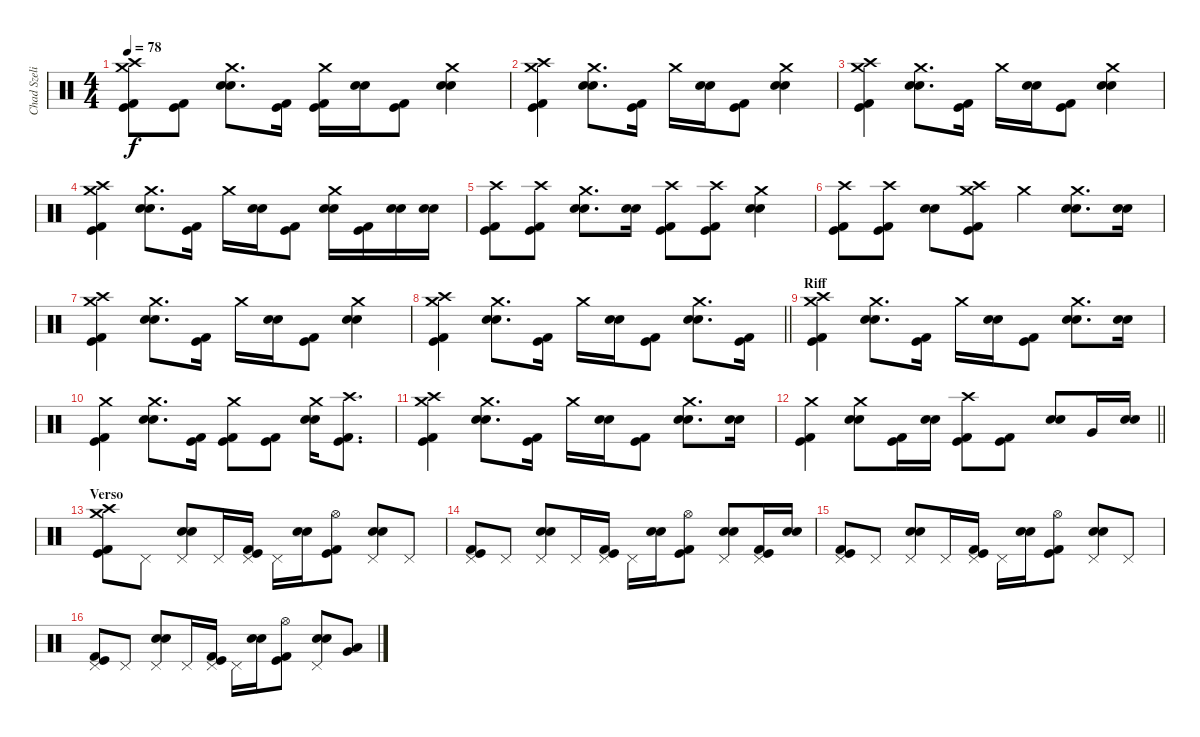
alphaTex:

\track ("Chad Szeliga" "Chad Szeli") {instrument percussion}
\staff {score}
\articulation defaults
\ts (4 4)
\tempo 78
\clef neutral
\ks c
("Crash high (hit)" "Kick (hit) 2" "Kick (hit)" "Crash medium (hit)").8{dy f} ("Kick (hit) 2" "Kick (hit)").8 ("Crash medium (hit)" "Snare (hit) 2" "Snare (hit) 2").8{d} ("Kick (hit) 2" "Kick (hit)").16 ("Crash medium (hit)" "Kick (hit) 2" "Kick (hit)").16 ("Snare (hit) 2" "Snare (hit) 2").16 ("Kick (hit) 2" "Kick (hit)").8 ("Crash medium (hit)" "Snare (hit) 2" "Snare (hit) 2").4 |
("Crash high (hit)" "Kick (hit) 2" "Kick (hit)" "Crash medium (hit)").4 ("Crash medium (hit)" "Snare (hit) 2" "Snare (hit) 2").8{d} ("Kick (hit) 2" "Kick (hit)").16 "Crash medium (hit)".16 ("Snare (hit) 2" "Snare (hit) 2").16 ("Kick (hit) 2" "Kick (hit)").8 ("Crash medium (hit)" "Snare (hit) 2" "Snare (hit) 2").4 |
("Crash high (hit)" "Kick (hit) 2" "Kick (hit)" "Crash medium (hit)").4 ("Crash medium (hit)" "Snare (hit) 2" "Snare (hit) 2").8{d} ("Kick (hit) 2" "Kick (hit)").16 "Crash medium (hit)".16 ("Snare (hit) 2" "Snare (hit) 2").16 ("Kick (hit) 2" "Kick (hit)").8 ("Crash medium (hit)" "Snare (hit) 2" "Snare (hit) 2").4 |
("Crash high (hit)" "Kick (hit) 2" "Kick (hit)" "Crash medium (hit)").4 ("Crash medium (hit)" "Snare (hit) 2" "Snare (hit) 2").8{d} ("Kick (hit) 2" "Kick (hit)").16 "Crash medium (hit)".16 ("Snare (hit) 2" "Snare (hit) 2").16 ("Kick (hit) 2" "Kick (hit)").8 ("Crash medium (hit)" "Snare (hit) 2" "Snare (hit) 2").16 ("Kick (hit) 2" "Kick (hit)").16 ("Snare (hit) 2" "Snare (hit) 2").16 ("Snare (hit) 2" "Snare (hit) 2").16 |
("Crash high (hit)" "Kick (hit) 2" "Kick (hit)").8 ("Crash high (hit)" "Kick (hit) 2" "Kick (hit)").8 ("Crash medium (hit)" "Snare (hit) 2" "Snare (hit) 2").8{d} ("Snare (hit) 2" "Snare (hit) 2").16 ("Crash high (hit)" "Kick (hit) 2" "Kick (hit)").8 ("Crash high (hit)" "Kick (hit) 2" "Kick (hit)").8 ("Crash medium (hit)" "Snare (hit) 2" "Snare (hit) 2").4 |
("Crash high (hit)" "Kick (hit) 2" "Kick (hit)").8 ("Crash high (hit)" "Kick (hit) 2" "Kick (hit)").8 ("Snare (hit) 2" "Snare (hit) 2").8 ("Crash high (hit)" "Kick (hit) 2" "Kick (hit)" "Crash medium (hit)").8 "Crash medium (hit)".4 ("Crash medium (hit)" "Snare (hit) 2" "Snare (hit) 2").8{d} ("Snare (hit) 2" "Snare (hit) 2").16 |
("Crash high (hit)" "Kick (hit) 2" "Kick (hit)" "Crash medium (hit)").4 ("Crash medium (hit)" "Snare (hit) 2" "Snare (hit) 2").8{d} ("Kick (hit) 2" "Kick (hit)").16 "Crash medium (hit)".16 ("Snare (hit) 2" "Snare (hit) 2").16 ("Kick (hit) 2" "Kick (hit)").8 ("Crash medium (hit)" "Snare (hit) 2" "Snare (hit) 2").4 |
\barLineRight lightlight
("Crash high (hit)" "Kick (hit) 2" "Kick (hit)" "Crash medium (hit)").4 ("Crash medium (hit)" "Snare (hit) 2" "Snare (hit) 2").8{d} ("Kick (hit) 2" "Kick (hit)").16 "Crash medium (hit)".16 ("Snare (hit) 2" "Snare (hit) 2").16 ("Kick (hit) 2" "Kick (hit)").8 ("Crash medium (hit)" "Snare (hit) 2" "Snare (hit) 2").8{d} ("Kick (hit) 2" "Kick (hit)").16 |
\section ("" "Riff")
("Crash high (hit)" "Kick (hit) 2" "Kick (hit)" "Crash medium (hit)").4 ("Crash medium (hit)" "Snare (hit) 2" "Snare (hit) 2").8{d} ("Kick (hit) 2" "Kick (hit)").16 "Crash medium (hit)".16 ("Snare (hit) 2" "Snare (hit) 2").16 ("Kick (hit) 2" "Kick (hit)").8 ("Crash medium (hit)" "Snare (hit) 2" "Snare (hit) 2").8{d} ("Snare (hit) 2" "Snare (hit) 2").16 |
("Crash medium (hit)" "Kick (hit) 2" "Kick (hit)").4 ("Crash medium (hit)" "Snare (hit) 2" "Snare (hit) 2").8{d} ("Kick (hit) 2" "Kick (hit)").16 ("Crash medium (hit)" "Kick (hit) 2" "Kick (hit)").8 ("Kick (hit) 2" "Kick (hit)").8 ("Crash medium (hit)" "Snare (hit) 2" "Snare (hit) 2").16 ("Crash high (hit)" "Kick (hit) 2" "Kick (hit)").8{d} |
("Crash high (hit)" "Kick (hit) 2" "Kick (hit)" "Crash medium (hit)").4 ("Crash medium (hit)" "Snare (hit) 2" "Snare (hit) 2").8{d} ("Kick (hit) 2" "Kick (hit)").16 "Crash medium (hit)".16 ("Snare (hit) 2" "Snare (hit) 2").16 ("Kick (hit) 2" "Kick (hit)").8 ("Crash medium (hit)" "Snare (hit) 2" "Snare (hit) 2").8{d} ("Snare (hit) 2" "Snare (hit) 2").16 |
\barLineRight lightlight
("Crash medium (hit)" "Kick (hit) 2" "Kick (hit)").4 ("Crash medium (hit)" "Snare (hit) 2" "Snare (hit) 2").8 ("Kick (hit) 2" "Kick (hit)").16 ("Snare (hit) 2" "Snare (hit) 2").16 ("Crash high (hit)" "Kick (hit) 2" "Kick (hit)").8 ("Kick (hit) 2" "Kick (hit)").8 ("Snare (hit) 2" "Snare (hit) 2").8 "Very Low Tom (hit)".16 ("Snare (hit) 2" "Snare (hit) 2").16 |
\section ("" "Verso")
("Crash high (hit)" "Kick (hit) 2" "Kick (hit)" "Crash medium (hit)").8 "Pedal Hi-Hat (hit)".8 ("Snare (hit) 2" "Snare (hit) 2" "Pedal Hi-Hat (hit)").8 "Pedal Hi-Hat (hit)".16 ("Kick (hit) 2" "Kick (hit)" "Pedal Hi-Hat (hit)").16 "Pedal Hi-Hat (hit)".16 ("Snare (hit) 2" "Snare (hit) 2").16 ("Kick (hit) 2" "Kick (hit)" "Hi-Hat (open)").8 ("Snare (hit) 2" "Snare (hit) 2" "Pedal Hi-Hat (hit)").8 "Pedal Hi-Hat (hit)".8 |
("Kick (hit) 2" "Kick (hit)" "Pedal Hi-Hat (hit)").8 "Pedal Hi-Hat (hit)".8 ("Snare (hit) 2" "Snare (hit) 2" "Pedal Hi-Hat (hit)").8 "Pedal Hi-Hat (hit)".16 ("Kick (hit) 2" "Kick (hit)" "Pedal Hi-Hat (hit)").16 "Pedal Hi-Hat (hit)".16 ("Snare (hit) 2" "Snare (hit) 2").16 ("Kick (hit) 2" "Kick (hit)" "Hi-Hat (open)").8 ("Snare (hit) 2" "Snare (hit) 2" "Pedal Hi-Hat (hit)").8 ("Kick (hit) 2" "Kick (hit)" "Pedal Hi-Hat (hit)").16 ("Snare (hit) 2" "Snare (hit) 2").16 |
("Kick (hit) 2" "Kick (hit)" "Pedal Hi-Hat (hit)").8 "Pedal Hi-Hat (hit)".8 ("Snare (hit) 2" "Snare (hit) 2" "Pedal Hi-Hat (hit)").8 "Pedal Hi-Hat (hit)".16 ("Kick (hit) 2" "Kick (hit)" "Pedal Hi-Hat (hit)").16 "Pedal Hi-Hat (hit)".16 ("Snare (hit) 2" "Snare (hit) 2").16 ("Kick (hit) 2" "Kick (hit)" "Hi-Hat (open)").8 ("Snare (hit) 2" "Snare (hit) 2" "Pedal Hi-Hat (hit)").8 "Pedal Hi-Hat (hit)".8 |
("Kick (hit) 2" "Kick (hit)" "Pedal Hi-Hat (hit)").8 "Pedal Hi-Hat (hit)".8 ("Snare (hit) 2" "Snare (hit) 2" "Pedal Hi-Hat (hit)").8 "Pedal Hi-Hat (hit)".16 ("Kick (hit) 2" "Kick (hit)" "Pedal Hi-Hat (hit)").16 "Pedal Hi-Hat (hit)".16 ("Snare (hit) 2" "Snare (hit) 2").16 ("Kick (hit) 2" "Kick (hit)" "Hi-Hat (open)").8 ("Snare (hit) 2" "Snare (hit) 2" "Pedal Hi-Hat (hit)").8 ("Very Low Tom (hit)" "Low Tom (hit)").8
